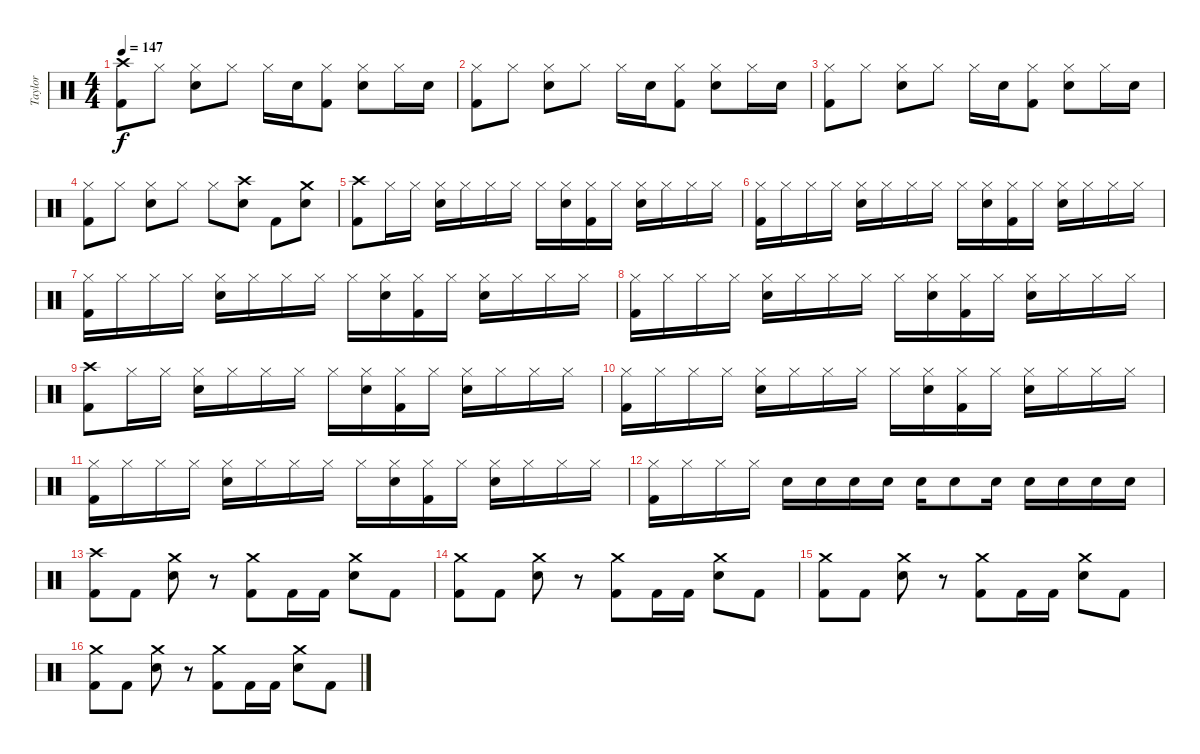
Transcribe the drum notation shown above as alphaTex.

\track ("Taylor" "Taylor") {instrument percussion}
\staff {score}
\articulation defaults
\ts (4 4)
\tempo 147
\clef neutral
\ks c
("Crash high (hit)" "Kick (hit) 2").8{dy f} "Hi-Hat (closed)".8 ("Hi-Hat (closed)" "Electric Snare (hit)").8 "Hi-Hat (closed)".8 "Hi-Hat (closed)".16 "Electric Snare (hit)".16 ("Hi-Hat (closed)" "Kick (hit) 2").8 ("Hi-Hat (closed)" "Electric Snare (hit)").8 "Hi-Hat (closed)".16 "Electric Snare (hit)".16 |
("Hi-Hat (closed)" "Kick (hit) 2").8 "Hi-Hat (closed)".8 ("Hi-Hat (closed)" "Electric Snare (hit)").8 "Hi-Hat (closed)".8 "Hi-Hat (closed)".16 "Electric Snare (hit)".16 ("Hi-Hat (closed)" "Kick (hit) 2").8 ("Hi-Hat (closed)" "Electric Snare (hit)").8 "Hi-Hat (closed)".16 "Electric Snare (hit)".16 |
("Hi-Hat (closed)" "Kick (hit) 2").8 "Hi-Hat (closed)".8 ("Hi-Hat (closed)" "Electric Snare (hit)").8 "Hi-Hat (closed)".8 "Hi-Hat (closed)".16 "Electric Snare (hit)".16 ("Hi-Hat (closed)" "Kick (hit) 2").8 ("Hi-Hat (closed)" "Electric Snare (hit)").8 "Hi-Hat (closed)".16 "Electric Snare (hit)".16 |
("Hi-Hat (closed)" "Kick (hit) 2").8 "Hi-Hat (closed)".8 ("Hi-Hat (closed)" "Electric Snare (hit)").8 "Hi-Hat (closed)".8 "Hi-Hat (closed)".8 ("Crash high (hit)" "Electric Snare (hit)").8 "Kick (hit) 2".8 ("Crash medium (hit)" "Electric Snare (hit)").8 |
("Crash high (hit)" "Kick (hit) 2").8 "Hi-Hat (closed)".16 "Hi-Hat (closed)".16 ("Hi-Hat (closed)" "Electric Snare (hit)").16 "Hi-Hat (closed)".16 "Hi-Hat (closed)".16 "Hi-Hat (closed)".16 "Hi-Hat (closed)".16 ("Hi-Hat (closed)" "Electric Snare (hit)").16 ("Hi-Hat (closed)" "Kick (hit) 2").16 "Hi-Hat (closed)".16 ("Hi-Hat (closed)" "Electric Snare (hit)").16 "Hi-Hat (closed)".16 "Hi-Hat (closed)".16 "Hi-Hat (closed)".16 |
("Hi-Hat (closed)" "Kick (hit) 2").16 "Hi-Hat (closed)".16 "Hi-Hat (closed)".16 "Hi-Hat (closed)".16 ("Hi-Hat (closed)" "Electric Snare (hit)").16 "Hi-Hat (closed)".16 "Hi-Hat (closed)".16 "Hi-Hat (closed)".16 "Hi-Hat (closed)".16 ("Hi-Hat (closed)" "Electric Snare (hit)").16 ("Hi-Hat (closed)" "Kick (hit) 2").16 "Hi-Hat (closed)".16 ("Hi-Hat (closed)" "Electric Snare (hit)").16 "Hi-Hat (closed)".16 "Hi-Hat (closed)".16 "Hi-Hat (closed)".16 |
("Hi-Hat (closed)" "Kick (hit) 2").16 "Hi-Hat (closed)".16 "Hi-Hat (closed)".16 "Hi-Hat (closed)".16 ("Hi-Hat (closed)" "Electric Snare (hit)").16 "Hi-Hat (closed)".16 "Hi-Hat (closed)".16 "Hi-Hat (closed)".16 "Hi-Hat (closed)".16 ("Hi-Hat (closed)" "Electric Snare (hit)").16 ("Hi-Hat (closed)" "Kick (hit) 2").16 "Hi-Hat (closed)".16 ("Hi-Hat (closed)" "Electric Snare (hit)").16 "Hi-Hat (closed)".16 "Hi-Hat (closed)".16 "Hi-Hat (closed)".16 |
("Hi-Hat (closed)" "Kick (hit) 2").16 "Hi-Hat (closed)".16 "Hi-Hat (closed)".16 "Hi-Hat (closed)".16 ("Hi-Hat (closed)" "Electric Snare (hit)").16 "Hi-Hat (closed)".16 "Hi-Hat (closed)".16 "Hi-Hat (closed)".16 "Hi-Hat (closed)".16 ("Hi-Hat (closed)" "Electric Snare (hit)").16 ("Hi-Hat (closed)" "Kick (hit) 2").16 "Hi-Hat (closed)".16 ("Hi-Hat (closed)" "Electric Snare (hit)").16 "Hi-Hat (closed)".16 "Hi-Hat (closed)".16 "Hi-Hat (closed)".16 |
("Crash high (hit)" "Kick (hit) 2").8 "Hi-Hat (closed)".16 "Hi-Hat (closed)".16 ("Hi-Hat (closed)" "Electric Snare (hit)").16 "Hi-Hat (closed)".16 "Hi-Hat (closed)".16 "Hi-Hat (closed)".16 "Hi-Hat (closed)".16 ("Hi-Hat (closed)" "Electric Snare (hit)").16 ("Hi-Hat (closed)" "Kick (hit) 2").16 "Hi-Hat (closed)".16 ("Hi-Hat (closed)" "Electric Snare (hit)").16 "Hi-Hat (closed)".16 "Hi-Hat (closed)".16 "Hi-Hat (closed)".16 |
("Hi-Hat (closed)" "Kick (hit) 2").16 "Hi-Hat (closed)".16 "Hi-Hat (closed)".16 "Hi-Hat (closed)".16 ("Hi-Hat (closed)" "Electric Snare (hit)").16 "Hi-Hat (closed)".16 "Hi-Hat (closed)".16 "Hi-Hat (closed)".16 "Hi-Hat (closed)".16 ("Hi-Hat (closed)" "Electric Snare (hit)").16 ("Hi-Hat (closed)" "Kick (hit) 2").16 "Hi-Hat (closed)".16 ("Hi-Hat (closed)" "Electric Snare (hit)").16 "Hi-Hat (closed)".16 "Hi-Hat (closed)".16 "Hi-Hat (closed)".16 |
("Hi-Hat (closed)" "Kick (hit) 2").16 "Hi-Hat (closed)".16 "Hi-Hat (closed)".16 "Hi-Hat (closed)".16 ("Hi-Hat (closed)" "Electric Snare (hit)").16 "Hi-Hat (closed)".16 "Hi-Hat (closed)".16 "Hi-Hat (closed)".16 "Hi-Hat (closed)".16 ("Hi-Hat (closed)" "Electric Snare (hit)").16 ("Hi-Hat (closed)" "Kick (hit) 2").16 "Hi-Hat (closed)".16 ("Hi-Hat (closed)" "Electric Snare (hit)").16 "Hi-Hat (closed)".16 "Hi-Hat (closed)".16 "Hi-Hat (closed)".16 |
("Hi-Hat (closed)" "Kick (hit) 2").16 "Hi-Hat (closed)".16 "Hi-Hat (closed)".16 "Hi-Hat (closed)".16 "Electric Snare (hit)".16 "Electric Snare (hit)".16 "Electric Snare (hit)".16 "Electric Snare (hit)".16 "Electric Snare (hit)".16 "Electric Snare (hit)".8 "Electric Snare (hit)".16 "Electric Snare (hit)".16 "Electric Snare (hit)".16 "Electric Snare (hit)".16 "Electric Snare (hit)".16 |
("Crash high (hit)" "Kick (hit) 2").8 "Kick (hit) 2".8 ("Crash medium (hit)" "Electric Snare (hit)").8 r.8 ("Crash medium (hit)" "Kick (hit) 2").8 "Kick (hit) 2".16 "Kick (hit) 2".16 ("Crash medium (hit)" "Electric Snare (hit)").8 "Kick (hit) 2".8 |
("Crash medium (hit)" "Kick (hit) 2").8 "Kick (hit) 2".8 ("Crash medium (hit)" "Electric Snare (hit)").8 r.8 ("Crash medium (hit)" "Kick (hit) 2").8 "Kick (hit) 2".16 "Kick (hit) 2".16 ("Crash medium (hit)" "Electric Snare (hit)").8 "Kick (hit) 2".8 |
("Crash medium (hit)" "Kick (hit) 2").8 "Kick (hit) 2".8 ("Crash medium (hit)" "Electric Snare (hit)").8 r.8 ("Crash medium (hit)" "Kick (hit) 2").8 "Kick (hit) 2".16 "Kick (hit) 2".16 ("Crash medium (hit)" "Electric Snare (hit)").8 "Kick (hit) 2".8 |
("Crash medium (hit)" "Kick (hit) 2").8 "Kick (hit) 2".8 ("Crash medium (hit)" "Electric Snare (hit)").8 r.8 ("Crash medium (hit)" "Kick (hit) 2").8 "Kick (hit) 2".16 "Kick (hit) 2".16 ("Crash medium (hit)" "Electric Snare (hit)").8 "Kick (hit) 2".8
